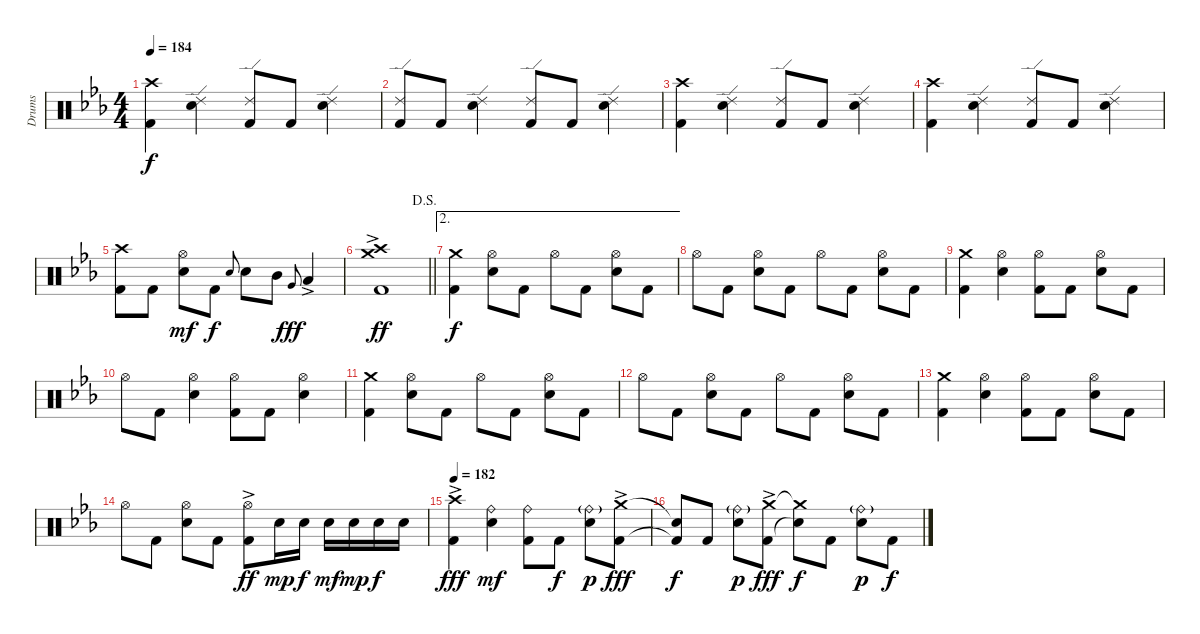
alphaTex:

\track ("Drums" "Drums") {instrument percussion}
\staff {score}
\articulation defaults
\ts (4 4)
\tempo 184
\clef neutral
\ks eb
("Crash high (hit)" "Kick (hit) 2").4{dy f} ("Ride (edge) 2" "Electric Snare (hit)").4 ("Ride (edge) 2" "Kick (hit) 2").8 "Kick (hit) 2".8 ("Ride (edge) 2" "Electric Snare (hit)").4 |
("Ride (edge) 2" "Kick (hit) 2").8 "Kick (hit) 2".8 ("Ride (edge) 2" "Electric Snare (hit)").4 ("Ride (edge) 2" "Kick (hit) 2").8 "Kick (hit) 2".8 ("Ride (edge) 2" "Electric Snare (hit)").4 |
("Crash high (hit)" "Kick (hit) 2").4 ("Ride (edge) 2" "Electric Snare (hit)").4 ("Ride (edge) 2" "Kick (hit) 2").8 "Kick (hit) 2".8 ("Ride (edge) 2" "Electric Snare (hit)").4 |
("Crash high (hit)" "Kick (hit) 2").4 ("Ride (edge) 2" "Electric Snare (hit)").4 ("Ride (edge) 2" "Kick (hit) 2").8 "Kick (hit) 2".8 ("Ride (edge) 2" "Electric Snare (hit)").4 |
("Crash high (hit)" "Kick (hit) 2").8 "Kick (hit) 2".8 ("Hi-Hat (open)" "Electric Snare (hit)").8{dy mf} "Kick (hit) 2".8{dy f} "Electric Snare (hit)".8{gr onbeat} "Electric Snare (hit)".8 "Mid Tom (hit)".8 "Very Low Tom (hit)".8{gr onbeat dy fff} "Low Tom (hit)"{ac}.4 |
\jump dalsegno
\barLineRight lightlight
("Crash medium (hit)"{ac} "Crash high (hit)"{ac} "Kick (hit) 2"{ac}).1{dy ff} |
\ae 2
("Crash medium (hit)" "Kick (hit) 2").4{dy f} ("Hi-Hat (open)" "Electric Snare (hit)").8 "Kick (hit) 2".8 "Hi-Hat (open)".8 "Kick (hit) 2".8 ("Hi-Hat (open)" "Electric Snare (hit)").8 "Kick (hit) 2".8 |
"Hi-Hat (open)".8 "Kick (hit) 2".8 ("Hi-Hat (open)" "Electric Snare (hit)").8 "Kick (hit) 2".8 "Hi-Hat (open)".8 "Kick (hit) 2".8 ("Hi-Hat (open)" "Electric Snare (hit)").8 "Kick (hit) 2".8 |
("Crash medium (hit)" "Kick (hit) 2").4 ("Hi-Hat (open)" "Electric Snare (hit)").4 ("Hi-Hat (open)" "Kick (hit) 2").8 "Kick (hit) 2".8 ("Hi-Hat (open)" "Electric Snare (hit)").8 "Kick (hit) 2".8 |
"Hi-Hat (open)".8 "Kick (hit) 2".8 ("Hi-Hat (open)" "Electric Snare (hit)").4 ("Hi-Hat (open)" "Kick (hit) 2").8 "Kick (hit) 2".8 ("Hi-Hat (open)" "Electric Snare (hit)").4 |
("Crash medium (hit)" "Kick (hit) 2").4 ("Hi-Hat (open)" "Electric Snare (hit)").8 "Kick (hit) 2".8 "Hi-Hat (open)".8 "Kick (hit) 2".8 ("Hi-Hat (open)" "Electric Snare (hit)").8 "Kick (hit) 2".8 |
"Hi-Hat (open)".8 "Kick (hit) 2".8 ("Hi-Hat (open)" "Electric Snare (hit)").8 "Kick (hit) 2".8 "Hi-Hat (open)".8 "Kick (hit) 2".8 ("Hi-Hat (open)" "Electric Snare (hit)").8 "Kick (hit) 2".8 |
("Crash medium (hit)" "Kick (hit) 2").4 ("Hi-Hat (open)" "Electric Snare (hit)").4 ("Hi-Hat (open)" "Kick (hit) 2").8 "Kick (hit) 2".8 ("Hi-Hat (open)" "Electric Snare (hit)").8 "Kick (hit) 2".8 |
"Hi-Hat (open)".8 "Kick (hit) 2".8 ("Hi-Hat (open)" "Electric Snare (hit)").8 "Kick (hit) 2".8 ("Hi-Hat (open)"{ac} "Kick (hit) 2").8{dy ff} "Electric Snare (hit)".16{dy mp} "Electric Snare (hit)".16{dy f} "Electric Snare (hit)".16{dy mf} "Electric Snare (hit)".16{dy mp} "Electric Snare (hit)".16{dy f} "Electric Snare (hit)".16 |
\tempo 182
("Crash high (hit)"{ac} "Kick (hit) 2").4{dy fff} ("Ride (bell)" "Electric Snare (hit)").4{dy mf} ("Ride (bell)" "Kick (hit) 2").8 "Kick (hit) 2".8{dy f} ("Ride (bell)"{g} "Electric Snare (hit)").8{dy p} ("Crash medium (hit)"{ac} "Kick (hit) 2").8{dy fff} |
("Snare (hit)"{t} "Kick (hit) 2"{t}).8{dy f} "Kick (hit) 2".8 ("Ride (bell)"{g} "Electric Snare (hit)").8{dy p} ("Crash medium (hit)"{ac} "Kick (hit) 2").8{dy fff} ("Crash medium (hit)"{t} "Snare (hit)"{t}).8{dy f} "Kick (hit) 2".8 ("Ride (bell)"{g} "Electric Snare (hit)").8{dy p} "Kick (hit) 2".8{dy f}
